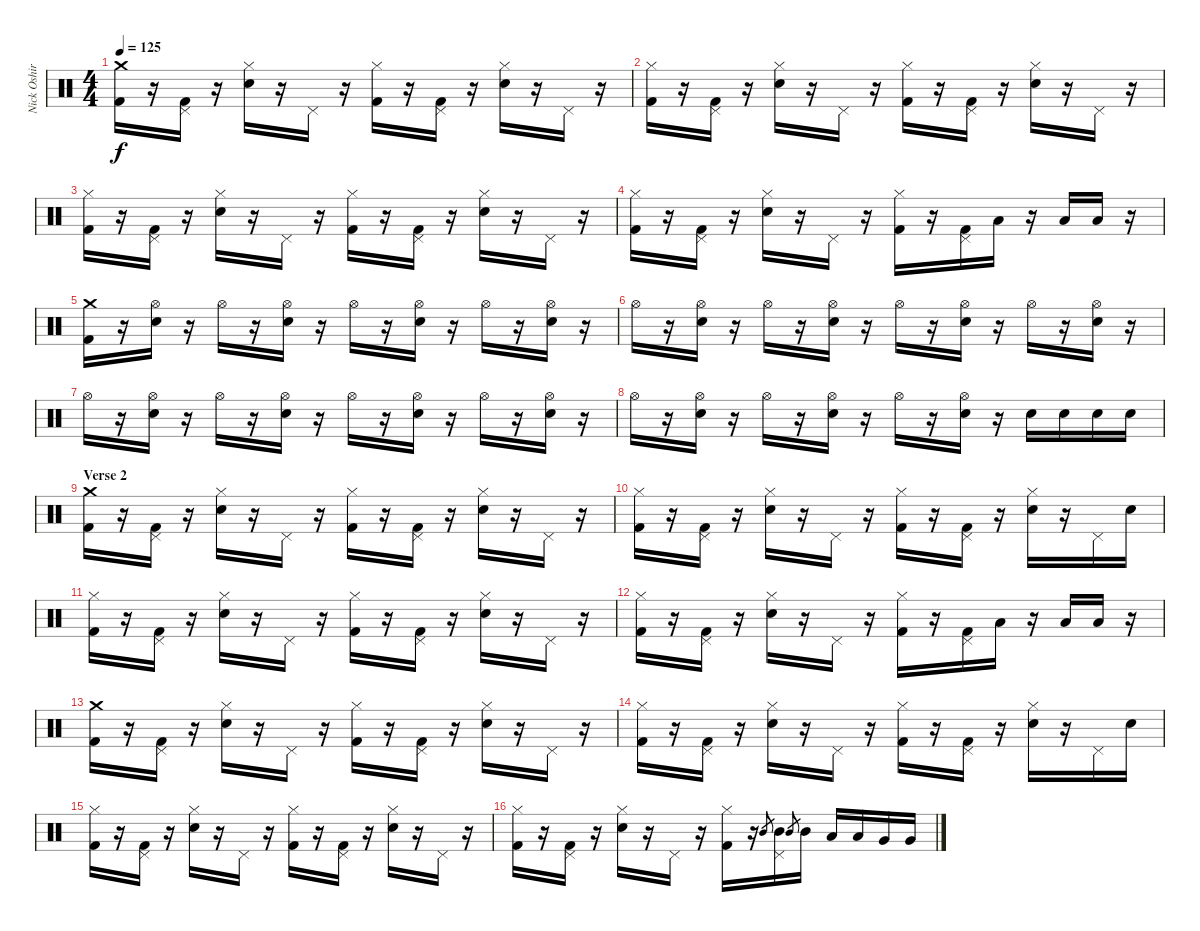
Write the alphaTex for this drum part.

\track ("Nick Oshiro - Drums" "Nick Oshir") {instrument percussion}
\staff {score}
\articulation defaults
\ts (4 4)
\tempo 125
\clef neutral
\ks c
("Crash medium (hit)" "Kick (hit) 2").16{dy f} r.16 ("Pedal Hi-Hat (hit)" "Kick (hit) 2").16 r.16 ("Hi-Hat (closed)" "Snare (hit) 2").16 r.16 "Pedal Hi-Hat (hit)".16 r.16 ("Hi-Hat (closed)" "Kick (hit) 2").16 r.16 ("Pedal Hi-Hat (hit)" "Kick (hit) 2").16 r.16 ("Hi-Hat (closed)" "Snare (hit) 2").16 r.16 "Pedal Hi-Hat (hit)".16 r.16 |
("Hi-Hat (closed)" "Kick (hit) 2").16 r.16 ("Pedal Hi-Hat (hit)" "Kick (hit) 2").16 r.16 ("Hi-Hat (closed)" "Snare (hit) 2").16 r.16 "Pedal Hi-Hat (hit)".16 r.16 ("Hi-Hat (closed)" "Kick (hit) 2").16 r.16 ("Pedal Hi-Hat (hit)" "Kick (hit) 2").16 r.16 ("Hi-Hat (closed)" "Snare (hit) 2").16 r.16 "Pedal Hi-Hat (hit)".16 r.16 |
("Hi-Hat (closed)" "Kick (hit) 2").16 r.16 ("Pedal Hi-Hat (hit)" "Kick (hit) 2").16 r.16 ("Hi-Hat (closed)" "Snare (hit) 2").16 r.16 "Pedal Hi-Hat (hit)".16 r.16 ("Hi-Hat (closed)" "Kick (hit) 2").16 r.16 ("Pedal Hi-Hat (hit)" "Kick (hit) 2").16 r.16 ("Hi-Hat (closed)" "Snare (hit) 2").16 r.16 "Pedal Hi-Hat (hit)".16 r.16 |
("Hi-Hat (closed)" "Kick (hit) 2").16 r.16 ("Pedal Hi-Hat (hit)" "Kick (hit) 2").16 r.16 ("Hi-Hat (closed)" "Snare (hit) 2").16 r.16 "Pedal Hi-Hat (hit)".16 r.16 ("Hi-Hat (closed)" "Kick (hit) 2").16 r.16 ("Pedal Hi-Hat (hit)" "Kick (hit) 2").16 "Low Floor Tom (hit)".16 r.16 "Low Floor Tom (hit)".16 "Low Floor Tom (hit)".16 r.16 |
("Crash medium (hit)" "Kick (hit) 2").16 r.16 ("Hi-Hat (open)" "Snare (hit) 2").16 r.16 "Hi-Hat (open)".16 r.16 ("Hi-Hat (open)" "Snare (hit) 2").16 r.16 "Hi-Hat (open)".16 r.16 ("Hi-Hat (open)" "Snare (hit) 2").16 r.16 "Hi-Hat (open)".16 r.16 ("Hi-Hat (open)" "Snare (hit) 2").16 r.16 |
"Hi-Hat (open)".16 r.16 ("Hi-Hat (open)" "Snare (hit) 2").16 r.16 "Hi-Hat (open)".16 r.16 ("Hi-Hat (open)" "Snare (hit) 2").16 r.16 "Hi-Hat (open)".16 r.16 ("Hi-Hat (open)" "Snare (hit) 2").16 r.16 "Hi-Hat (open)".16 r.16 ("Hi-Hat (open)" "Snare (hit) 2").16 r.16 |
"Hi-Hat (open)".16 r.16 ("Hi-Hat (open)" "Snare (hit) 2").16 r.16 "Hi-Hat (open)".16 r.16 ("Hi-Hat (open)" "Snare (hit) 2").16 r.16 "Hi-Hat (open)".16 r.16 ("Hi-Hat (open)" "Snare (hit) 2").16 r.16 "Hi-Hat (open)".16 r.16 ("Hi-Hat (open)" "Snare (hit) 2").16 r.16 |
"Hi-Hat (open)".16 r.16 ("Hi-Hat (open)" "Snare (hit) 2").16 r.16 "Hi-Hat (open)".16 r.16 ("Hi-Hat (open)" "Snare (hit) 2").16 r.16 "Hi-Hat (open)".16 r.16 ("Hi-Hat (open)" "Snare (hit) 2").16 r.16 "Snare (hit) 2".16 "Snare (hit) 2".16 "Snare (hit) 2".16 "Snare (hit) 2".16 |
\section ("" "Verse 2")
("Crash medium (hit)" "Kick (hit) 2").16 r.16 ("Pedal Hi-Hat (hit)" "Kick (hit) 2").16 r.16 ("Hi-Hat (closed)" "Snare (hit) 2").16 r.16 "Pedal Hi-Hat (hit)".16 r.16 ("Hi-Hat (closed)" "Kick (hit) 2").16 r.16 ("Pedal Hi-Hat (hit)" "Kick (hit) 2").16 r.16 ("Hi-Hat (closed)" "Snare (hit) 2").16 r.16 "Pedal Hi-Hat (hit)".16 r.16 |
("Hi-Hat (closed)" "Kick (hit) 2").16 r.16 ("Pedal Hi-Hat (hit)" "Kick (hit) 2").16 r.16 ("Hi-Hat (closed)" "Snare (hit) 2").16 r.16 "Pedal Hi-Hat (hit)".16 r.16 ("Hi-Hat (closed)" "Kick (hit) 2").16 r.16 ("Pedal Hi-Hat (hit)" "Kick (hit) 2").16 r.16 ("Hi-Hat (closed)" "Snare (hit) 2").16 r.16 "Pedal Hi-Hat (hit)".16 "Snare (hit) 2".16 |
("Hi-Hat (closed)" "Kick (hit) 2").16 r.16 ("Pedal Hi-Hat (hit)" "Kick (hit) 2").16 r.16 ("Hi-Hat (closed)" "Snare (hit) 2").16 r.16 "Pedal Hi-Hat (hit)".16 r.16 ("Hi-Hat (closed)" "Kick (hit) 2").16 r.16 ("Pedal Hi-Hat (hit)" "Kick (hit) 2").16 r.16 ("Hi-Hat (closed)" "Snare (hit) 2").16 r.16 "Pedal Hi-Hat (hit)".16 r.16 |
("Hi-Hat (closed)" "Kick (hit) 2").16 r.16 ("Pedal Hi-Hat (hit)" "Kick (hit) 2").16 r.16 ("Hi-Hat (closed)" "Snare (hit) 2").16 r.16 "Pedal Hi-Hat (hit)".16 r.16 ("Hi-Hat (closed)" "Kick (hit) 2").16 r.16 ("Pedal Hi-Hat (hit)" "Kick (hit) 2").16 "Low Floor Tom (hit)".16 r.16 "Low Floor Tom (hit)".16 "Low Floor Tom (hit)".16 r.16 |
("Crash medium (hit)" "Kick (hit) 2").16 r.16 ("Pedal Hi-Hat (hit)" "Kick (hit) 2").16 r.16 ("Hi-Hat (closed)" "Snare (hit) 2").16 r.16 "Pedal Hi-Hat (hit)".16 r.16 ("Hi-Hat (closed)" "Kick (hit) 2").16 r.16 ("Pedal Hi-Hat (hit)" "Kick (hit) 2").16 r.16 ("Hi-Hat (closed)" "Snare (hit) 2").16 r.16 "Pedal Hi-Hat (hit)".16 r.16 |
("Hi-Hat (closed)" "Kick (hit) 2").16 r.16 ("Pedal Hi-Hat (hit)" "Kick (hit) 2").16 r.16 ("Hi-Hat (closed)" "Snare (hit) 2").16 r.16 "Pedal Hi-Hat (hit)".16 r.16 ("Hi-Hat (closed)" "Kick (hit) 2").16 r.16 ("Pedal Hi-Hat (hit)" "Kick (hit) 2").16 r.16 ("Hi-Hat (closed)" "Snare (hit) 2").16 r.16 "Pedal Hi-Hat (hit)".16 "Snare (hit) 2".16 |
("Hi-Hat (closed)" "Kick (hit) 2").16 r.16 ("Pedal Hi-Hat (hit)" "Kick (hit) 2").16 r.16 ("Hi-Hat (closed)" "Snare (hit) 2").16 r.16 "Pedal Hi-Hat (hit)".16 r.16 ("Hi-Hat (closed)" "Kick (hit) 2").16 r.16 ("Pedal Hi-Hat (hit)" "Kick (hit) 2").16 r.16 ("Hi-Hat (closed)" "Snare (hit) 2").16 r.16 "Pedal Hi-Hat (hit)".16 r.16 |
("Hi-Hat (closed)" "Kick (hit) 2").16 r.16 ("Pedal Hi-Hat (hit)" "Kick (hit) 2").16 r.16 ("Hi-Hat (closed)" "Snare (hit) 2").16 r.16 "Pedal Hi-Hat (hit)".16 r.16 ("Hi-Hat (closed)" "Kick (hit) 2").16 r.16 "Mid Tom (hit)".8{gr} ("Mid Tom (hit)" "Pedal Hi-Hat (hit)").16 "Mid Tom (hit)".8{gr} "Mid Tom (hit)".16 "Low Tom (hit)".16 "Low Tom (hit)".16 "Very Low Tom (hit)".16 "Very Low Tom (hit)".16
